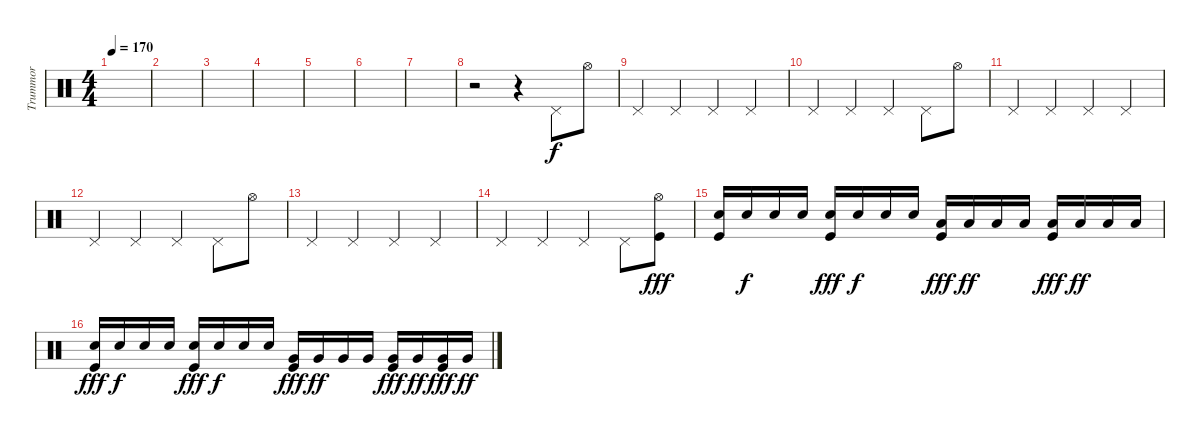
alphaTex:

\track ("Trummor" "Trummor") {instrument percussion}
\staff {score}
\articulation defaults
\ts (4 4)
\tempo 170
\clef neutral
\ks c
|
|
|
|
|
|
|
r.2 r.4 "Pedal Hi-Hat (hit)".8 "Hi-Hat (open)".8 |
"Pedal Hi-Hat (hit)".4 "Pedal Hi-Hat (hit)".4 "Pedal Hi-Hat (hit)".4 "Pedal Hi-Hat (hit)".4 |
"Pedal Hi-Hat (hit)".4 "Pedal Hi-Hat (hit)".4 "Pedal Hi-Hat (hit)".4 "Pedal Hi-Hat (hit)".8 "Hi-Hat (open)".8 |
"Pedal Hi-Hat (hit)".4 "Pedal Hi-Hat (hit)".4 "Pedal Hi-Hat (hit)".4 "Pedal Hi-Hat (hit)".4 |
"Pedal Hi-Hat (hit)".4 "Pedal Hi-Hat (hit)".4 "Pedal Hi-Hat (hit)".4 "Pedal Hi-Hat (hit)".8 "Hi-Hat (open)".8 |
"Pedal Hi-Hat (hit)".4 "Pedal Hi-Hat (hit)".4 "Pedal Hi-Hat (hit)".4 "Pedal Hi-Hat (hit)".4 |
"Pedal Hi-Hat (hit)".4 "Pedal Hi-Hat (hit)".4 "Pedal Hi-Hat (hit)".4 "Pedal Hi-Hat (hit)".8 ("Hi-Hat (open)" "Kick (hit)").8{dy fff} |
("Electric Snare (hit)" "Kick (hit)").16 "Electric Snare (hit)".16{dy f} "Electric Snare (hit)".16 "Electric Snare (hit)".16 ("Electric Snare (hit)" "Kick (hit)").16{dy fff} "Electric Snare (hit)".16{dy f} "Electric Snare (hit)".16 "Electric Snare (hit)".16 ("Low Floor Tom (hit)" "Kick (hit)").16{dy fff} "Low Floor Tom (hit)".16{dy ff} "Low Floor Tom (hit)".16 "Low Floor Tom (hit)".16 ("Low Floor Tom (hit)" "Kick (hit)").16{dy fff} "Low Floor Tom (hit)".16{dy ff} "Low Floor Tom (hit)".16 "Low Floor Tom (hit)".16 |
("Electric Snare (hit)" "Kick (hit)").16{dy fff} "Electric Snare (hit)".16{dy f} "Electric Snare (hit)".16 "Electric Snare (hit)".16 ("Electric Snare (hit)" "Kick (hit)").16{dy fff} "Electric Snare (hit)".16{dy f} "Electric Snare (hit)".16 "Electric Snare (hit)".16 ("Very Low Tom (hit)" "Kick (hit)").16{dy fff} "Very Low Tom (hit)".16{dy ff} "Very Low Tom (hit)".16 "Very Low Tom (hit)".16 ("Very Low Tom (hit)" "Kick (hit)").16{dy fff} "Very Low Tom (hit)".16{dy ff} ("Very Low Tom (hit)" "Kick (hit)").16{dy fff} "Very Low Tom (hit)".16{dy ff}
